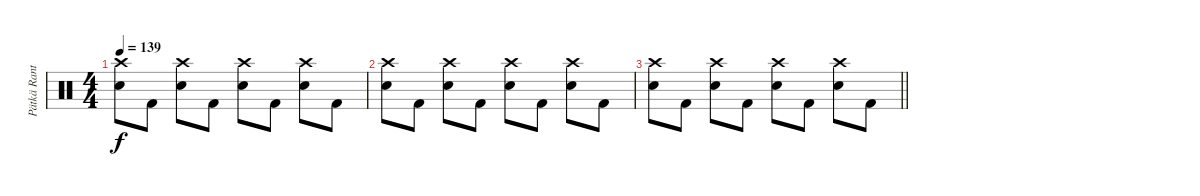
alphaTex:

\track ("Pätkä Rantala (Drums)" "Pätkä Rant") {instrument percussion}
\staff {score}
\articulation defaults
\ts (4 4)
\tempo 139
\clef neutral
\ks c
("Crash high (hit)" "Snare (hit) 2").8{dy f balance 3} "Kick (hit) 2".8 ("Crash high (hit)" "Snare (hit) 2").8 "Kick (hit) 2".8 ("Crash high (hit)" "Snare (hit) 2").8 "Kick (hit) 2".8 ("Crash high (hit)" "Snare (hit) 2").8 "Kick (hit) 2".8 |
("Crash high (hit)" "Snare (hit) 2").8 "Kick (hit) 2".8 ("Crash high (hit)" "Snare (hit) 2").8 "Kick (hit) 2".8{balance 12} ("Crash high (hit)" "Snare (hit) 2").8 "Kick (hit) 2".8 ("Crash high (hit)" "Snare (hit) 2").8 "Kick (hit) 2".8 |
\barLineRight lightlight
("Crash high (hit)" "Snare (hit) 2").8{balance 6} "Kick (hit) 2".8 ("Crash high (hit)" "Snare (hit) 2").8 "Kick (hit) 2".8 ("Crash high (hit)" "Snare (hit) 2").8 "Kick (hit) 2".8{balance 16} ("Crash high (hit)" "Snare (hit) 2").8 "Kick (hit) 2".8{volume 0}
